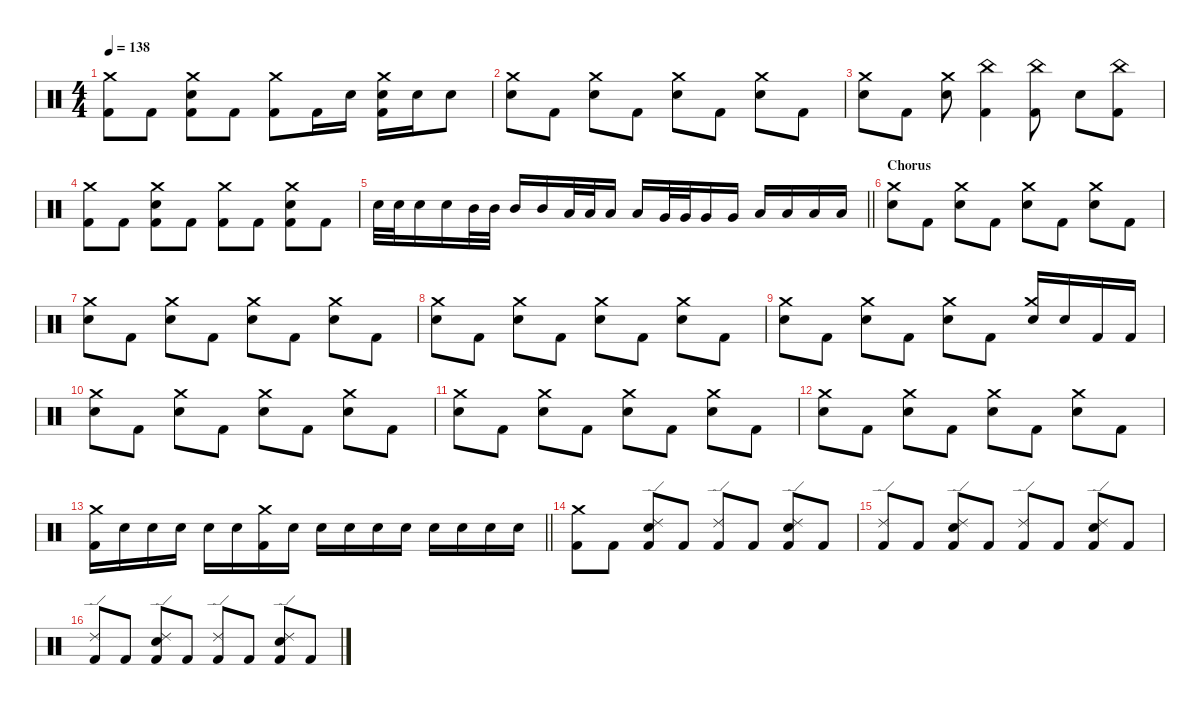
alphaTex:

\defaultSystemsLayout 4
\hideDynamics
\bracketExtendMode nobrackets
\singleTrackTrackNamePolicy hidden
\multiTrackTrackNamePolicy hidden
\firstSystemTrackNameMode fullname
\firstSystemTrackNameOrientation horizontal
\otherSystemsTrackNameOrientation horizontal
\track ("Drums" "drm.") {instrument percussion}
\staff {score}
\articulation defaults
\ts (4 4)
\tempo 138
\clef neutral
\ks c
("Crash medium (hit)" "Kick (hit) 2").8{dy f beam Down} "Kick (hit) 2".8{beam Down} ("Crash medium (hit)" "Snare (hit) 2" "Kick (hit) 2").8{beam Down} "Kick (hit) 2".8{beam Down} ("Crash medium (hit)" "Kick (hit) 2").8{beam Down} "Kick (hit) 2".16{beam Down} "Snare (hit) 2".16{beam Down} ("Crash medium (hit)" "Snare (hit) 2" "Kick (hit) 2").16{beam Down} "Snare (hit) 2".16{beam Down} "Snare (hit) 2".8{beam Down} |
("Crash medium (hit)" "Snare (hit) 2").8{beam Down} "Kick (hit) 2".8{beam Down} ("Crash medium (hit)" "Snare (hit) 2").8{beam Down} "Kick (hit) 2".8{beam Down} ("Crash medium (hit)" "Snare (hit) 2").8{beam Down} "Kick (hit) 2".8{beam Down} ("Crash medium (hit)" "Snare (hit) 2").8{beam Down} "Kick (hit) 2".8{beam Down} |
("Crash medium (hit)" "Snare (hit) 2").8{beam Down} "Kick (hit) 2".8{beam Down} ("Crash medium (hit)" "Snare (hit) 2").8{beam Down} ("China (hit)" "Kick (hit) 2").4{beam Down} ("China (hit)" "Kick (hit) 2").8{beam Down} "Snare (hit) 2".8{beam Down} ("China (hit)" "Kick (hit) 2").8{beam Down} |
("Crash medium (hit)" "Kick (hit) 2").8{beam Down} "Kick (hit) 2".8{beam Down} ("Crash medium (hit)" "Snare (hit) 2" "Kick (hit) 2").8{beam Down} "Kick (hit) 2".8{beam Down} ("Crash medium (hit)" "Kick (hit) 2").8{beam Down} "Kick (hit) 2".8{beam Down} ("Crash medium (hit)" "Snare (hit) 2" "Kick (hit) 2").8{beam Down} "Kick (hit) 2".8{beam Down} |
\barLineRight lightlight "Snare (hit) 2".32{beam Down} "Snare (hit) 2".32{beam Down} "Snare (hit) 2".16{beam Down} "Snare (hit) 2".16{beam Down} "Mid Tom (hit)".32{beam Down} "Mid Tom (hit)".32{beam Down} "Mid Tom (hit)".16{beam Up} "Mid Tom (hit)".16{beam Up} "Low Tom (hit)".32{beam Up} "Low Tom (hit)".32{beam Up} "Low Tom (hit)".16{beam Up} "Low Tom (hit)".16{beam Up} "Very Low Tom (hit)".32{beam Up} "Very Low Tom (hit)".32{beam Up} "Very Low Tom (hit)".16{beam Up} "Very Low Tom (hit)".16{beam Up} "Low Floor Tom (hit)".16{beam Up} "Low Floor Tom (hit)".16{beam Up} "Low Floor Tom (hit)".16{beam Up} "Low Floor Tom (hit)".16{beam Up}
|
\section ("" "Chorus")
("Crash medium (hit)" "Snare (hit) 2").8{beam Down} "Kick (hit) 2".8{beam Down} ("Crash medium (hit)" "Snare (hit) 2").8{beam Down} "Kick (hit) 2".8{beam Down} ("Crash medium (hit)" "Snare (hit) 2").8{beam Down} "Kick (hit) 2".8{beam Down} ("Crash medium (hit)" "Snare (hit) 2").8{beam Down} "Kick (hit) 2".8{beam Down} |
("Crash medium (hit)" "Snare (hit) 2").8{beam Down} "Kick (hit) 2".8{beam Down} ("Crash medium (hit)" "Snare (hit) 2").8{beam Down} "Kick (hit) 2".8{beam Down} ("Crash medium (hit)" "Snare (hit) 2").8{beam Down} "Kick (hit) 2".8{beam Down} ("Crash medium (hit)" "Snare (hit) 2").8{beam Down} "Kick (hit) 2".8{beam Down} |
("Crash medium (hit)" "Snare (hit) 2").8{beam Down} "Kick (hit) 2".8{beam Down} ("Crash medium (hit)" "Snare (hit) 2").8{beam Down} "Kick (hit) 2".8{beam Down} ("Crash medium (hit)" "Snare (hit) 2").8{beam Down} "Kick (hit) 2".8{beam Down} ("Crash medium (hit)" "Snare (hit) 2").8{beam Down} "Kick (hit) 2".8{beam Down} |
("Crash medium (hit)" "Snare (hit) 2").8{beam Down} "Kick (hit) 2".8{beam Down} ("Crash medium (hit)" "Snare (hit) 2").8{beam Down} "Kick (hit) 2".8{beam Down} ("Crash medium (hit)" "Snare (hit) 2").8{beam Down} "Kick (hit) 2".8{beam Down} ("Crash medium (hit)" "Snare (hit) 2").16{beam Up} "Snare (hit) 2".16{beam Up} "Kick (hit) 2".16{beam Up} "Kick (hit) 2".16{beam Up} |
("Crash medium (hit)" "Snare (hit) 2").8{beam Down} "Kick (hit) 2".8{beam Down} ("Crash medium (hit)" "Snare (hit) 2").8{beam Down} "Kick (hit) 2".8{beam Down} ("Crash medium (hit)" "Snare (hit) 2").8{beam Down} "Kick (hit) 2".8{beam Down} ("Crash medium (hit)" "Snare (hit) 2").8{beam Down} "Kick (hit) 2".8{beam Down} |
("Crash medium (hit)" "Snare (hit) 2").8{beam Down} "Kick (hit) 2".8{beam Down} ("Crash medium (hit)" "Snare (hit) 2").8{beam Down} "Kick (hit) 2".8{beam Down} ("Crash medium (hit)" "Snare (hit) 2").8{beam Down} "Kick (hit) 2".8{beam Down} ("Crash medium (hit)" "Snare (hit) 2").8{beam Down} "Kick (hit) 2".8{beam Down} |
("Crash medium (hit)" "Snare (hit) 2").8{beam Down} "Kick (hit) 2".8{beam Down} ("Crash medium (hit)" "Snare (hit) 2").8{beam Down} "Kick (hit) 2".8{beam Down} ("Crash medium (hit)" "Snare (hit) 2").8{beam Down} "Kick (hit) 2".8{beam Down} ("Crash medium (hit)" "Snare (hit) 2").8{beam Down} "Kick (hit) 2".8{beam Down} |
\barLineRight lightlight
("Crash medium (hit)" "Kick (hit) 2").16{beam Down} "Snare (hit) 2".16{beam Down} "Snare (hit) 2".16{beam Down} "Snare (hit) 2".16{beam Down} "Snare (hit) 2".16{beam Down} "Snare (hit) 2".16{beam Down} ("Crash medium (hit)" "Kick (hit) 2").16{beam Down} "Snare (hit) 2".16{beam Down} "Snare (hit) 2".16{beam Down} "Snare (hit) 2".16{beam Down} "Snare (hit) 2".16{beam Down} "Snare (hit) 2".16{beam Down} "Snare (hit) 2".16{beam Down} "Snare (hit) 2".16{beam Down} "Snare (hit) 2".16{beam Down} "Snare (hit) 2".16{beam Down} |
\section ("" "")
("Crash medium (hit)" "Kick (hit) 2").8{beam Down} "Kick (hit) 2".8{beam Down} ("Ride (edge) 2" "Snare (hit) 2" "Kick (hit) 2").8{beam Up} "Kick (hit) 2".8{beam Up} ("Ride (edge) 2" "Kick (hit) 2").8{beam Up} "Kick (hit) 2".8{beam Up} ("Ride (edge) 2" "Snare (hit) 2" "Kick (hit) 2").8{beam Up} "Kick (hit) 2".8{beam Up} |
("Ride (edge) 2" "Kick (hit) 2").8{beam Up} "Kick (hit) 2".8{beam Up} ("Ride (edge) 2" "Snare (hit) 2" "Kick (hit) 2").8{beam Up} "Kick (hit) 2".8{beam Up} ("Ride (edge) 2" "Kick (hit) 2").8{beam Up} "Kick (hit) 2".8{beam Up} ("Ride (edge) 2" "Snare (hit) 2" "Kick (hit) 2").8{beam Up} "Kick (hit) 2".8{beam Up} |
("Ride (edge) 2" "Kick (hit) 2").8{beam Up} "Kick (hit) 2".8{beam Up} ("Ride (edge) 2" "Snare (hit) 2" "Kick (hit) 2").8{beam Up} "Kick (hit) 2".8{beam Up} ("Ride (edge) 2" "Kick (hit) 2").8{beam Up} "Kick (hit) 2".8{beam Up} ("Ride (edge) 2" "Snare (hit) 2" "Kick (hit) 2").8{beam Up} "Kick (hit) 2".8{beam Up}
